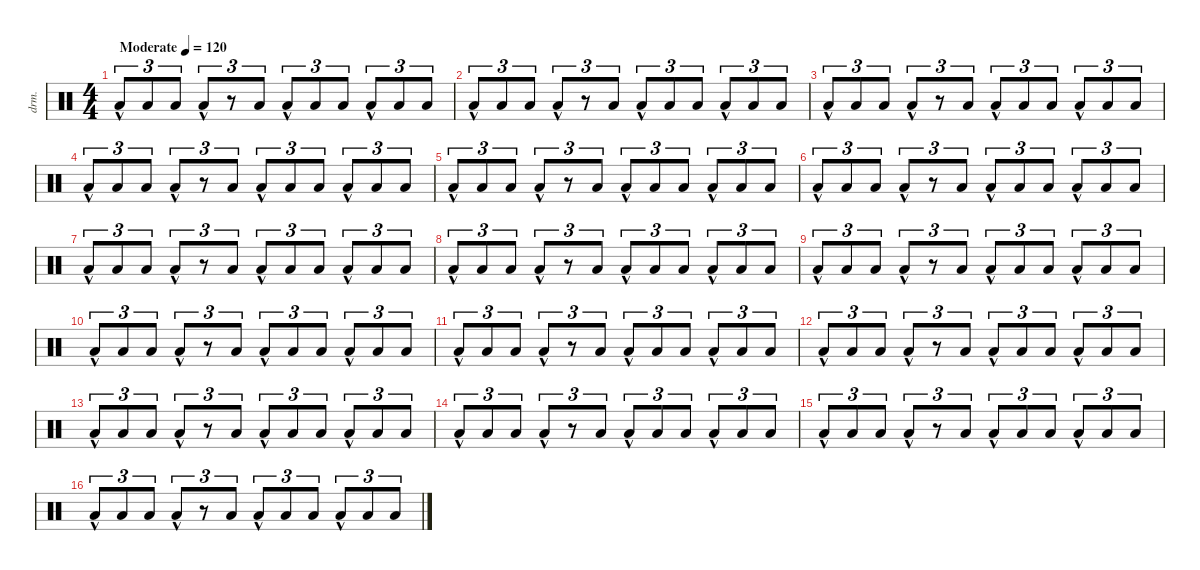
\defaultSystemsLayout 4
\hideDynamics
\bracketExtendMode nobrackets
\otherSystemsTrackNameOrientation horizontal
\track ("Percussion" "drm.") {instrument percussion}
\staff {score}
\articulation defaults
\ts (4 4)
\beaming (8 2 2 2 2)
\tempo (120 "Moderate")
\clef neutral
\ks c "Low Floor Tom (hit)"{hac}.8{tu (3 2) dy f beam Up} "Low Floor Tom (hit)".8{tu (3 2) beam Up} "Low Floor Tom (hit)".8{tu (3 2) beam Up} "Low Floor Tom (hit)"{hac}.8{tu (3 2) beam Up}
r.8{tu (3 2) beam Up} "Low Floor Tom (hit)".8{tu (3 2) beam Up} "Low Floor Tom (hit)"{hac}.8{tu (3 2) beam Up} "Low Floor Tom (hit)".8{tu (3 2) beam Up} "Low Floor Tom (hit)".8{tu (3 2) beam Up} "Low Floor Tom (hit)"{hac}.8{tu (3 2) beam Up} "Low Floor Tom (hit)".8{tu (3 2) beam Up} "Low Floor Tom (hit)".8{tu (3 2) beam Up} |
"Low Floor Tom (hit)"{hac}.8{tu (3 2) beam Up} "Low Floor Tom (hit)".8{tu (3 2) beam Up} "Low Floor Tom (hit)".8{tu (3 2) beam Up} "Low Floor Tom (hit)"{hac}.8{tu (3 2) beam Up} r.8{tu (3 2) beam Up} "Low Floor Tom (hit)".8{tu (3 2) beam Up} "Low Floor Tom (hit)"{hac}.8{tu (3 2) beam Up} "Low Floor Tom (hit)".8{tu (3 2) beam Up} "Low Floor Tom (hit)".8{tu (3 2) beam Up} "Low Floor Tom (hit)"{hac}.8{tu (3 2) beam Up} "Low Floor Tom (hit)".8{tu (3 2) beam Up} "Low Floor Tom (hit)".8{tu (3 2) beam Up} |
"Low Floor Tom (hit)"{hac}.8{tu (3 2) beam Up} "Low Floor Tom (hit)".8{tu (3 2) beam Up} "Low Floor Tom (hit)".8{tu (3 2) beam Up} "Low Floor Tom (hit)"{hac}.8{tu (3 2) beam Up} r.8{tu (3 2) beam Up} "Low Floor Tom (hit)".8{tu (3 2) beam Up} "Low Floor Tom (hit)"{hac}.8{tu (3 2) beam Up} "Low Floor Tom (hit)".8{tu (3 2) beam Up} "Low Floor Tom (hit)".8{tu (3 2) beam Up} "Low Floor Tom (hit)"{hac}.8{tu (3 2) beam Up} "Low Floor Tom (hit)".8{tu (3 2) beam Up} "Low Floor Tom (hit)".8{tu (3 2) beam Up} |
"Low Floor Tom (hit)"{hac}.8{tu (3 2) beam Up} "Low Floor Tom (hit)".8{tu (3 2) beam Up} "Low Floor Tom (hit)".8{tu (3 2) beam Up} "Low Floor Tom (hit)"{hac}.8{tu (3 2) beam Up} r.8{tu (3 2) beam Up} "Low Floor Tom (hit)".8{tu (3 2) beam Up} "Low Floor Tom (hit)"{hac}.8{tu (3 2) beam Up} "Low Floor Tom (hit)".8{tu (3 2) beam Up} "Low Floor Tom (hit)".8{tu (3 2) beam Up} "Low Floor Tom (hit)"{hac}.8{tu (3 2) beam Up} "Low Floor Tom (hit)".8{tu (3 2) beam Up} "Low Floor Tom (hit)".8{tu (3 2) beam Up} |
"Low Floor Tom (hit)"{hac}.8{tu (3 2) beam Up} "Low Floor Tom (hit)".8{tu (3 2) beam Up} "Low Floor Tom (hit)".8{tu (3 2) beam Up} "Low Floor Tom (hit)"{hac}.8{tu (3 2) beam Up} r.8{tu (3 2) beam Up} "Low Floor Tom (hit)".8{tu (3 2) beam Up} "Low Floor Tom (hit)"{hac}.8{tu (3 2) beam Up} "Low Floor Tom (hit)".8{tu (3 2) beam Up} "Low Floor Tom (hit)".8{tu (3 2) beam Up} "Low Floor Tom (hit)"{hac}.8{tu (3 2) beam Up} "Low Floor Tom (hit)".8{tu (3 2) beam Up} "Low Floor Tom (hit)".8{tu (3 2) beam Up} |
"Low Floor Tom (hit)"{hac}.8{tu (3 2) beam Up} "Low Floor Tom (hit)".8{tu (3 2) beam Up} "Low Floor Tom (hit)".8{tu (3 2) beam Up} "Low Floor Tom (hit)"{hac}.8{tu (3 2) beam Up} r.8{tu (3 2) beam Up} "Low Floor Tom (hit)".8{tu (3 2) beam Up} "Low Floor Tom (hit)"{hac}.8{tu (3 2) beam Up} "Low Floor Tom (hit)".8{tu (3 2) beam Up} "Low Floor Tom (hit)".8{tu (3 2) beam Up} "Low Floor Tom (hit)"{hac}.8{tu (3 2) beam Up} "Low Floor Tom (hit)".8{tu (3 2) beam Up} "Low Floor Tom (hit)".8{tu (3 2) beam Up} |
"Low Floor Tom (hit)"{hac}.8{tu (3 2) beam Up} "Low Floor Tom (hit)".8{tu (3 2) beam Up} "Low Floor Tom (hit)".8{tu (3 2) beam Up} "Low Floor Tom (hit)"{hac}.8{tu (3 2) beam Up} r.8{tu (3 2) beam Up} "Low Floor Tom (hit)".8{tu (3 2) beam Up} "Low Floor Tom (hit)"{hac}.8{tu (3 2) beam Up} "Low Floor Tom (hit)".8{tu (3 2) beam Up} "Low Floor Tom (hit)".8{tu (3 2) beam Up} "Low Floor Tom (hit)"{hac}.8{tu (3 2) beam Up} "Low Floor Tom (hit)".8{tu (3 2) beam Up} "Low Floor Tom (hit)".8{tu (3 2) beam Up} |
"Low Floor Tom (hit)"{hac}.8{tu (3 2) beam Up} "Low Floor Tom (hit)".8{tu (3 2) beam Up} "Low Floor Tom (hit)".8{tu (3 2) beam Up} "Low Floor Tom (hit)"{hac}.8{tu (3 2) beam Up} r.8{tu (3 2) beam Up} "Low Floor Tom (hit)".8{tu (3 2) beam Up} "Low Floor Tom (hit)"{hac}.8{tu (3 2) beam Up} "Low Floor Tom (hit)".8{tu (3 2) beam Up} "Low Floor Tom (hit)".8{tu (3 2) beam Up} "Low Floor Tom (hit)"{hac}.8{tu (3 2) beam Up} "Low Floor Tom (hit)".8{tu (3 2) beam Up} "Low Floor Tom (hit)".8{tu (3 2) beam Up} |
"Low Floor Tom (hit)"{hac}.8{tu (3 2) beam Up} "Low Floor Tom (hit)".8{tu (3 2) beam Up} "Low Floor Tom (hit)".8{tu (3 2) beam Up} "Low Floor Tom (hit)"{hac}.8{tu (3 2) beam Up} r.8{tu (3 2) beam Up} "Low Floor Tom (hit)".8{tu (3 2) beam Up} "Low Floor Tom (hit)"{hac}.8{tu (3 2) beam Up} "Low Floor Tom (hit)".8{tu (3 2) beam Up} "Low Floor Tom (hit)".8{tu (3 2) beam Up} "Low Floor Tom (hit)"{hac}.8{tu (3 2) beam Up} "Low Floor Tom (hit)".8{tu (3 2) beam Up} "Low Floor Tom (hit)".8{tu (3 2) beam Up} |
"Low Floor Tom (hit)"{hac}.8{tu (3 2) beam Up} "Low Floor Tom (hit)".8{tu (3 2) beam Up} "Low Floor Tom (hit)".8{tu (3 2) beam Up} "Low Floor Tom (hit)"{hac}.8{tu (3 2) beam Up} r.8{tu (3 2) beam Up} "Low Floor Tom (hit)".8{tu (3 2) beam Up} "Low Floor Tom (hit)"{hac}.8{tu (3 2) beam Up} "Low Floor Tom (hit)".8{tu (3 2) beam Up} "Low Floor Tom (hit)".8{tu (3 2) beam Up} "Low Floor Tom (hit)"{hac}.8{tu (3 2) beam Up} "Low Floor Tom (hit)".8{tu (3 2) beam Up} "Low Floor Tom (hit)".8{tu (3 2) beam Up} |
"Low Floor Tom (hit)"{hac}.8{tu (3 2) beam Up} "Low Floor Tom (hit)".8{tu (3 2) beam Up} "Low Floor Tom (hit)".8{tu (3 2) beam Up} "Low Floor Tom (hit)"{hac}.8{tu (3 2) beam Up} r.8{tu (3 2) beam Up} "Low Floor Tom (hit)".8{tu (3 2) beam Up} "Low Floor Tom (hit)"{hac}.8{tu (3 2) beam Up} "Low Floor Tom (hit)".8{tu (3 2) beam Up} "Low Floor Tom (hit)".8{tu (3 2) beam Up} "Low Floor Tom (hit)"{hac}.8{tu (3 2) beam Up} "Low Floor Tom (hit)".8{tu (3 2) beam Up} "Low Floor Tom (hit)".8{tu (3 2) beam Up} |
"Low Floor Tom (hit)"{hac}.8{tu (3 2) beam Up} "Low Floor Tom (hit)".8{tu (3 2) beam Up} "Low Floor Tom (hit)".8{tu (3 2) beam Up} "Low Floor Tom (hit)"{hac}.8{tu (3 2) beam Up} r.8{tu (3 2) beam Up} "Low Floor Tom (hit)".8{tu (3 2) beam Up} "Low Floor Tom (hit)"{hac}.8{tu (3 2) beam Up} "Low Floor Tom (hit)".8{tu (3 2) beam Up} "Low Floor Tom (hit)".8{tu (3 2) beam Up} "Low Floor Tom (hit)"{hac}.8{tu (3 2) beam Up} "Low Floor Tom (hit)".8{tu (3 2) beam Up} "Low Floor Tom (hit)".8{tu (3 2) beam Up} |
"Low Floor Tom (hit)"{hac}.8{tu (3 2) beam Up} "Low Floor Tom (hit)".8{tu (3 2) beam Up} "Low Floor Tom (hit)".8{tu (3 2) beam Up} "Low Floor Tom (hit)"{hac}.8{tu (3 2) beam Up} r.8{tu (3 2) beam Up} "Low Floor Tom (hit)".8{tu (3 2) beam Up} "Low Floor Tom (hit)"{hac}.8{tu (3 2) beam Up} "Low Floor Tom (hit)".8{tu (3 2) beam Up} "Low Floor Tom (hit)".8{tu (3 2) beam Up} "Low Floor Tom (hit)"{hac}.8{tu (3 2) beam Up} "Low Floor Tom (hit)".8{tu (3 2) beam Up} "Low Floor Tom (hit)".8{tu (3 2) beam Up} |
"Low Floor Tom (hit)"{hac}.8{tu (3 2) beam Up} "Low Floor Tom (hit)".8{tu (3 2) beam Up} "Low Floor Tom (hit)".8{tu (3 2) beam Up} "Low Floor Tom (hit)"{hac}.8{tu (3 2) beam Up} r.8{tu (3 2) beam Up} "Low Floor Tom (hit)".8{tu (3 2) beam Up} "Low Floor Tom (hit)"{hac}.8{tu (3 2) beam Up} "Low Floor Tom (hit)".8{tu (3 2) beam Up} "Low Floor Tom (hit)".8{tu (3 2) beam Up} "Low Floor Tom (hit)"{hac}.8{tu (3 2) beam Up} "Low Floor Tom (hit)".8{tu (3 2) beam Up} "Low Floor Tom (hit)".8{tu (3 2) beam Up} |
"Low Floor Tom (hit)"{hac}.8{tu (3 2) beam Up} "Low Floor Tom (hit)".8{tu (3 2) beam Up} "Low Floor Tom (hit)".8{tu (3 2) beam Up} "Low Floor Tom (hit)"{hac}.8{tu (3 2) beam Up} r.8{tu (3 2) beam Up} "Low Floor Tom (hit)".8{tu (3 2) beam Up} "Low Floor Tom (hit)"{hac}.8{tu (3 2) beam Up} "Low Floor Tom (hit)".8{tu (3 2) beam Up} "Low Floor Tom (hit)".8{tu (3 2) beam Up} "Low Floor Tom (hit)"{hac}.8{tu (3 2) beam Up} "Low Floor Tom (hit)".8{tu (3 2) beam Up} "Low Floor Tom (hit)".8{tu (3 2) beam Up} |
"Low Floor Tom (hit)"{hac}.8{tu (3 2) beam Up} "Low Floor Tom (hit)".8{tu (3 2) beam Up} "Low Floor Tom (hit)".8{tu (3 2) beam Up} "Low Floor Tom (hit)"{hac}.8{tu (3 2) beam Up} r.8{tu (3 2) beam Up} "Low Floor Tom (hit)".8{tu (3 2) beam Up} "Low Floor Tom (hit)"{hac}.8{tu (3 2) beam Up} "Low Floor Tom (hit)".8{tu (3 2) beam Up} "Low Floor Tom (hit)".8{tu (3 2) beam Up} "Low Floor Tom (hit)"{hac}.8{tu (3 2) beam Up} "Low Floor Tom (hit)".8{tu (3 2) beam Up} "Low Floor Tom (hit)".8{tu (3 2) beam Up}
